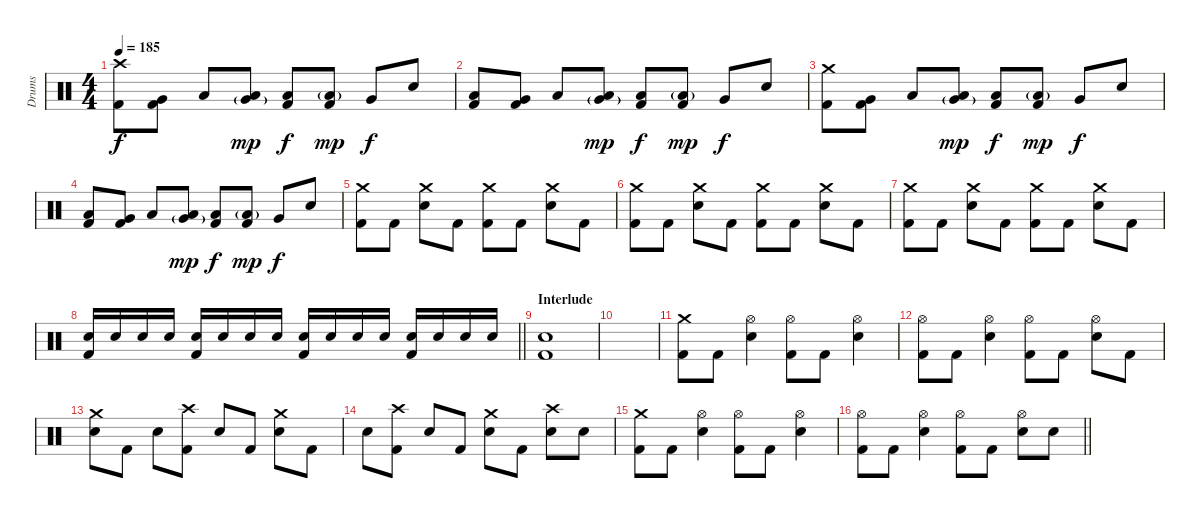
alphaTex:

\track ("Drums" "Drums") {instrument percussion}
\staff {score}
\articulation defaults
\ts (4 4)
\tempo 185
\clef neutral
\ks c
("Crash high (hit)" "Kick (hit) 2").8{dy f} ("Very Low Tom (hit)" "Kick (hit) 2").8 "Low Floor Tom (hit)".8 ("Low Tom (hit)" "Very Low Tom (hit)"{g}).8{dy mp} ("Low Floor Tom (hit)" "Kick (hit) 2").8{dy f} ("Low Floor Tom (hit)"{g} "Kick (hit) 2").8{dy mp} "Very Low Tom (hit)".8{dy f} "Electric Snare (hit)".8 |
("Low Tom (hit)" "Kick (hit) 2").8 ("Very Low Tom (hit)" "Kick (hit) 2").8 "Low Floor Tom (hit)".8 ("Low Tom (hit)" "Very Low Tom (hit)"{g}).8{dy mp} ("Low Floor Tom (hit)" "Kick (hit) 2").8{dy f} ("Low Floor Tom (hit)"{g} "Kick (hit) 2").8{dy mp} "Very Low Tom (hit)".8{dy f} "Electric Snare (hit)".8 |
("Crash medium (hit)" "Kick (hit) 2").8 ("Very Low Tom (hit)" "Kick (hit) 2").8 "Low Floor Tom (hit)".8 ("Low Tom (hit)" "Very Low Tom (hit)"{g}).8{dy mp} ("Low Floor Tom (hit)" "Kick (hit) 2").8{dy f} ("Low Floor Tom (hit)"{g} "Kick (hit) 2").8{dy mp} "Very Low Tom (hit)".8{dy f} "Electric Snare (hit)".8 |
("Low Tom (hit)" "Kick (hit) 2").8 ("Very Low Tom (hit)" "Kick (hit) 2").8 "Low Floor Tom (hit)".8 ("Low Tom (hit)" "Very Low Tom (hit)"{g}).8{dy mp} ("Low Floor Tom (hit)" "Kick (hit) 2").8{dy f} ("Low Floor Tom (hit)"{g} "Kick (hit) 2").8{dy mp} "Very Low Tom (hit)".8{dy f} "Electric Snare (hit)".8 |
("Crash medium (hit)" "Kick (hit) 2").8 "Kick (hit) 2".8 ("Crash medium (hit)" "Electric Snare (hit)").8 "Kick (hit) 2".8 ("Crash medium (hit)" "Kick (hit) 2").8 "Kick (hit) 2".8 ("Crash medium (hit)" "Electric Snare (hit)").8 "Kick (hit) 2".8 |
("Crash medium (hit)" "Kick (hit) 2").8 "Kick (hit) 2".8 ("Crash medium (hit)" "Electric Snare (hit)").8 "Kick (hit) 2".8 ("Crash medium (hit)" "Kick (hit) 2").8 "Kick (hit) 2".8 ("Crash medium (hit)" "Electric Snare (hit)").8 "Kick (hit) 2".8 |
("Crash medium (hit)" "Kick (hit) 2").8 "Kick (hit) 2".8 ("Crash medium (hit)" "Electric Snare (hit)").8 "Kick (hit) 2".8 ("Crash medium (hit)" "Kick (hit) 2").8 "Kick (hit) 2".8 ("Crash medium (hit)" "Electric Snare (hit)").8 "Kick (hit) 2".8 |
\barLineRight lightlight
("Electric Snare (hit)" "Kick (hit) 2").16 "Electric Snare (hit)".16{volume 8} "Electric Snare (hit)".16{volume 12} "Electric Snare (hit)".16 ("Electric Snare (hit)" "Kick (hit) 2").16 "Electric Snare (hit)".16 "Electric Snare (hit)".16 "Electric Snare (hit)".16 ("Electric Snare (hit)" "Kick (hit) 2").16 "Electric Snare (hit)".16 "Electric Snare (hit)".16 "Electric Snare (hit)".16 ("Electric Snare (hit)" "Kick (hit) 2").16 "Electric Snare (hit)".16 "Electric Snare (hit)".16 "Electric Snare (hit)".16 |
\section ("" "Interlude")
("Electric Snare (hit)" "Kick (hit) 2").1 |
|
("Crash medium (hit)" "Kick (hit) 2").8 "Kick (hit) 2".8 ("Hi-Hat (open)" "Electric Snare (hit)").4 ("Hi-Hat (open)" "Kick (hit) 2").8 "Kick (hit) 2".8 ("Hi-Hat (open)" "Electric Snare (hit)").4 |
("Hi-Hat (open)" "Kick (hit) 2").8 "Kick (hit) 2".8 ("Hi-Hat (open)" "Electric Snare (hit)").4 ("Hi-Hat (open)" "Kick (hit) 2").8 "Kick (hit) 2".8 ("Hi-Hat (open)" "Electric Snare (hit)").8 "Kick (hit) 2".8 |
("Crash medium (hit)" "Electric Snare (hit)").8 "Kick (hit) 2".8 "Electric Snare (hit)".8 ("Crash high (hit)" "Kick (hit) 2").8 "Electric Snare (hit)".8 "Kick (hit) 2".8 ("Crash medium (hit)" "Electric Snare (hit)").8 "Kick (hit) 2".8 |
"Electric Snare (hit)".8 ("Crash high (hit)" "Kick (hit) 2").8 "Electric Snare (hit)".8 "Kick (hit) 2".8 ("Crash medium (hit)" "Electric Snare (hit)").8 "Kick (hit) 2".8 ("Crash high (hit)" "Electric Snare (hit)").8 "Electric Snare (hit)".8 |
("Crash medium (hit)" "Kick (hit) 2").8 "Kick (hit) 2".8 ("Hi-Hat (open)" "Electric Snare (hit)").4 ("Hi-Hat (open)" "Kick (hit) 2").8 "Kick (hit) 2".8 ("Hi-Hat (open)" "Electric Snare (hit)").4 |
\barLineRight lightlight
("Hi-Hat (open)" "Kick (hit) 2").8 "Kick (hit) 2".8 ("Hi-Hat (open)" "Electric Snare (hit)").4 ("Hi-Hat (open)" "Kick (hit) 2").8 "Kick (hit) 2".8 ("Hi-Hat (open)" "Electric Snare (hit)").8 "Electric Snare (hit)".8
